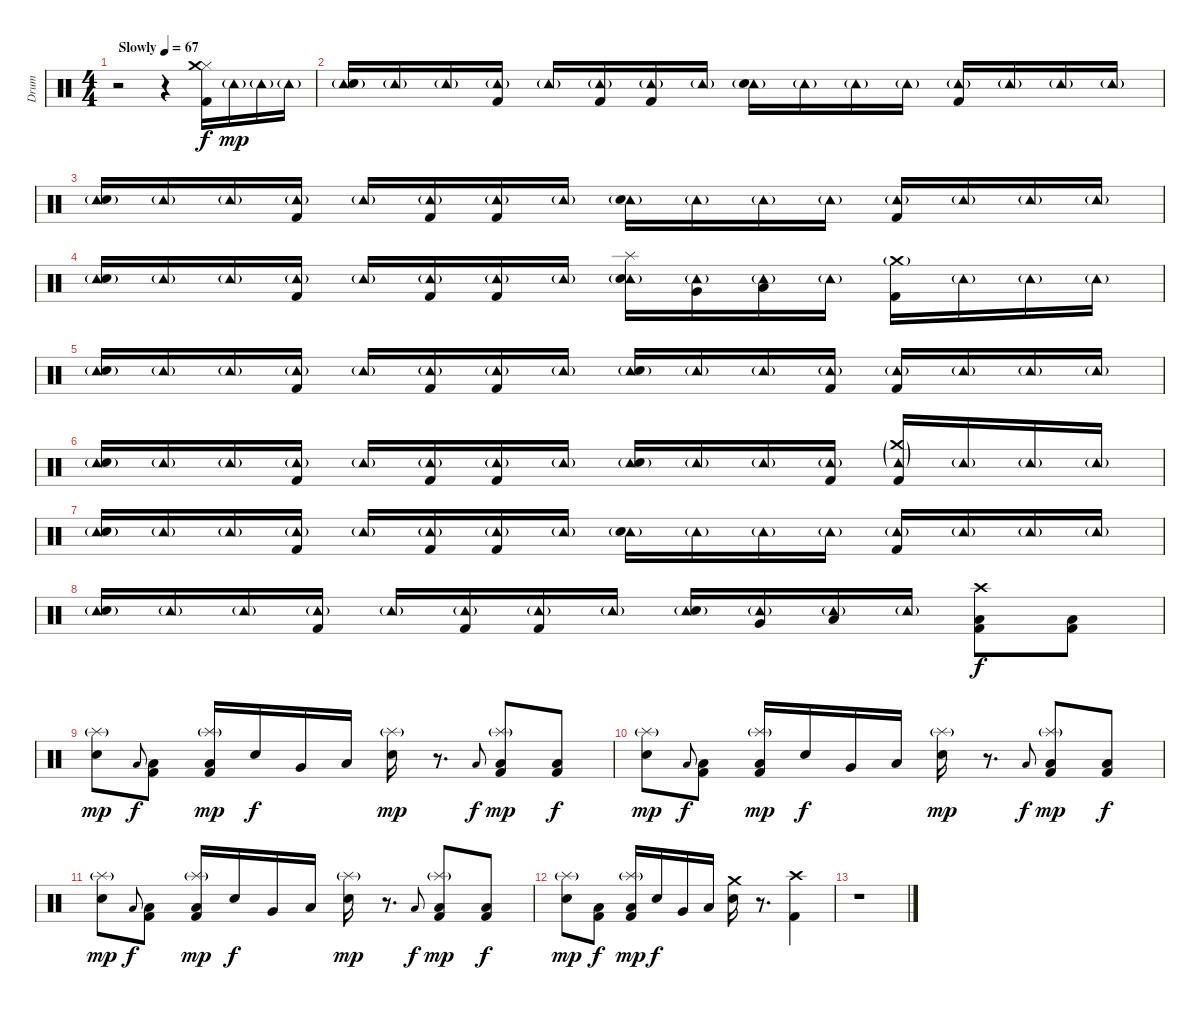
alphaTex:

\track ("Drum" "Drum") {instrument percussion}
\staff {score}
\articulation defaults
\ts (4 4)
\tempo (67 "Slowly")
\clef neutral
\ks c
r.2{dy f} r.4 ("Kick (hit) 2" "Hi-Hat (closed)" "Crash medium (hit)").16 "Tambourine (hit)"{g}.16{dy mp} "Tambourine (hit)"{g}.16 "Tambourine (hit)"{g}.16 |
("Tambourine (hit)"{g} "Electric Snare (hit)").16 "Tambourine (hit)"{g}.16 "Tambourine (hit)"{g}.16 ("Tambourine (hit)"{g} "Kick (hit) 2").16 "Tambourine (hit)"{g}.16 ("Tambourine (hit)"{g} "Kick (hit) 2").16 ("Tambourine (hit)"{g} "Kick (hit) 2").16 "Tambourine (hit)"{g}.16 ("Tambourine (hit)"{g} "Electric Snare (hit)").16 "Tambourine (hit)"{g}.16 "Tambourine (hit)"{g}.16 "Tambourine (hit)"{g}.16 ("Tambourine (hit)"{g} "Kick (hit) 2").16 "Tambourine (hit)"{g}.16 "Tambourine (hit)"{g}.16 "Tambourine (hit)"{g}.16 |
("Tambourine (hit)"{g} "Electric Snare (hit)").16 "Tambourine (hit)"{g}.16 "Tambourine (hit)"{g}.16 ("Tambourine (hit)"{g} "Kick (hit) 2").16 "Tambourine (hit)"{g}.16 ("Tambourine (hit)"{g} "Kick (hit) 2").16 ("Tambourine (hit)"{g} "Kick (hit) 2").16 "Tambourine (hit)"{g}.16 ("Tambourine (hit)"{g} "Electric Snare (hit)").16 "Tambourine (hit)"{g}.16 "Tambourine (hit)"{g}.16 "Tambourine (hit)"{g}.16 ("Tambourine (hit)"{g} "Kick (hit) 2").16 "Tambourine (hit)"{g}.16 "Tambourine (hit)"{g}.16 "Tambourine (hit)"{g}.16 |
("Tambourine (hit)"{g} "Electric Snare (hit)").16 "Tambourine (hit)"{g}.16 "Tambourine (hit)"{g}.16 ("Tambourine (hit)"{g} "Kick (hit) 2").16 "Tambourine (hit)"{g}.16 ("Tambourine (hit)"{g} "Kick (hit) 2").16 ("Tambourine (hit)"{g} "Kick (hit) 2").16 "Tambourine (hit)"{g}.16 ("Tambourine (hit)"{g} "Electric Snare (hit)" "Splash (hit)").16 ("Tambourine (hit)"{g} "Very Low Tom (hit)").16 ("Tambourine (hit)"{g} "Low Floor Tom (hit)").16 "Tambourine (hit)"{g}.16 ("Crash medium (hit)"{g} "Kick (hit) 2").16 "Tambourine (hit)"{g}.16 "Tambourine (hit)"{g}.16 "Tambourine (hit)"{g}.16 |
("Tambourine (hit)"{g} "Electric Snare (hit)").16 "Tambourine (hit)"{g}.16 "Tambourine (hit)"{g}.16 ("Tambourine (hit)"{g} "Kick (hit) 2").16 "Tambourine (hit)"{g}.16 ("Tambourine (hit)"{g} "Kick (hit) 2").16 ("Tambourine (hit)"{g} "Kick (hit) 2").16 "Tambourine (hit)"{g}.16 ("Tambourine (hit)"{g} "Electric Snare (hit)").16 "Tambourine (hit)"{g}.16 "Tambourine (hit)"{g}.16 ("Tambourine (hit)"{g} "Kick (hit) 2").16 ("Tambourine (hit)"{g} "Kick (hit) 2").16 "Tambourine (hit)"{g}.16 "Tambourine (hit)"{g}.16 "Tambourine (hit)"{g}.16 |
("Tambourine (hit)"{g} "Electric Snare (hit)").16 "Tambourine (hit)"{g}.16 "Tambourine (hit)"{g}.16 ("Tambourine (hit)"{g} "Kick (hit) 2").16 "Tambourine (hit)"{g}.16 ("Tambourine (hit)"{g} "Kick (hit) 2").16 ("Tambourine (hit)"{g} "Kick (hit) 2").16 "Tambourine (hit)"{g}.16 ("Tambourine (hit)"{g} "Electric Snare (hit)").16 "Tambourine (hit)"{g}.16 "Tambourine (hit)"{g}.16 ("Tambourine (hit)"{g} "Kick (hit) 2").16 ("Tambourine (hit)"{g} "Kick (hit) 2" "Crash medium (hit)"{g}).16 "Tambourine (hit)"{g}.16 "Tambourine (hit)"{g}.16 "Tambourine (hit)"{g}.16 |
("Tambourine (hit)"{g} "Electric Snare (hit)").16 "Tambourine (hit)"{g}.16 "Tambourine (hit)"{g}.16 ("Tambourine (hit)"{g} "Kick (hit) 2").16 "Tambourine (hit)"{g}.16 ("Tambourine (hit)"{g} "Kick (hit) 2").16 ("Tambourine (hit)"{g} "Kick (hit) 2").16 "Tambourine (hit)"{g}.16 ("Tambourine (hit)"{g} "Electric Snare (hit)").16 "Tambourine (hit)"{g}.16 "Tambourine (hit)"{g}.16 "Tambourine (hit)"{g}.16 ("Tambourine (hit)"{g} "Kick (hit) 2").16 "Tambourine (hit)"{g}.16 "Tambourine (hit)"{g}.16 "Tambourine (hit)"{g}.16 |
("Tambourine (hit)"{g} "Electric Snare (hit)").16 "Tambourine (hit)"{g}.16 "Tambourine (hit)"{g}.16 ("Tambourine (hit)"{g} "Kick (hit) 2").16 "Tambourine (hit)"{g}.16 ("Tambourine (hit)"{g} "Kick (hit) 2").16 ("Tambourine (hit)"{g} "Kick (hit) 2").16 "Tambourine (hit)"{g}.16 ("Tambourine (hit)"{g} "Electric Snare (hit)").16 ("Tambourine (hit)"{g} "Very Low Tom (hit)").16 ("Tambourine (hit)"{g} "Low Floor Tom (hit)").16 "Tambourine (hit)"{g}.16 ("Crash high (hit)" "Kick (hit) 2" "Low Floor Tom (hit)").8{dy f} ("Kick (hit) 2" "Low Floor Tom (hit)").8 |
("Splash (hit)"{g} "Electric Snare (hit)").8{dy mp} "Low Floor Tom (hit)".8{gr onbeat dy f} ("Kick (hit) 2" "Low Floor Tom (hit)").8 ("Splash (hit)"{g} "Kick (hit) 2" "Low Floor Tom (hit)").16{dy mp} "Electric Snare (hit)".16{dy f} "Very Low Tom (hit)".16 "Low Floor Tom (hit)".16 ("Splash (hit)"{g} "Electric Snare (hit)").16{dy mp} r.8{d} "Low Floor Tom (hit)".8{gr onbeat dy f} ("Splash (hit)"{g} "Kick (hit) 2" "Low Floor Tom (hit)").8{dy mp} ("Kick (hit) 2" "Low Floor Tom (hit)").8{dy f} |
("Splash (hit)"{g} "Electric Snare (hit)").8{dy mp} "Low Floor Tom (hit)".8{gr onbeat dy f} ("Kick (hit) 2" "Low Floor Tom (hit)").8 ("Splash (hit)"{g} "Kick (hit) 2" "Low Floor Tom (hit)").16{dy mp} "Electric Snare (hit)".16{dy f} "Very Low Tom (hit)".16 "Low Floor Tom (hit)".16 ("Splash (hit)"{g} "Electric Snare (hit)").16{dy mp} r.8{d} "Low Floor Tom (hit)".8{gr onbeat dy f} ("Splash (hit)"{g} "Kick (hit) 2" "Low Floor Tom (hit)").8{dy mp} ("Kick (hit) 2" "Low Floor Tom (hit)").8{dy f} |
("Splash (hit)"{g} "Electric Snare (hit)").8{dy mp} "Low Floor Tom (hit)".8{gr onbeat dy f} ("Kick (hit) 2" "Low Floor Tom (hit)").8 ("Splash (hit)"{g} "Kick (hit) 2" "Low Floor Tom (hit)").16{dy mp} "Electric Snare (hit)".16{dy f} "Very Low Tom (hit)".16 "Low Floor Tom (hit)".16 ("Splash (hit)"{g} "Electric Snare (hit)").16{dy mp} r.8{d} "Low Floor Tom (hit)".8{gr onbeat dy f} ("Splash (hit)"{g} "Kick (hit) 2" "Low Floor Tom (hit)").8{dy mp} ("Kick (hit) 2" "Low Floor Tom (hit)").8{dy f} |
("Splash (hit)"{g} "Electric Snare (hit)").8{dy mp} ("Kick (hit) 2" "Low Floor Tom (hit)").8{dy f} ("Splash (hit)"{g} "Kick (hit) 2" "Low Floor Tom (hit)").16{dy mp} "Electric Snare (hit)".16{dy f} "Very Low Tom (hit)".16 "Low Floor Tom (hit)".16 ("Electric Snare (hit)" "Crash medium (hit)").16 r.8{d} ("Crash high (hit)" "Kick (hit) 2").4 |
r.1
